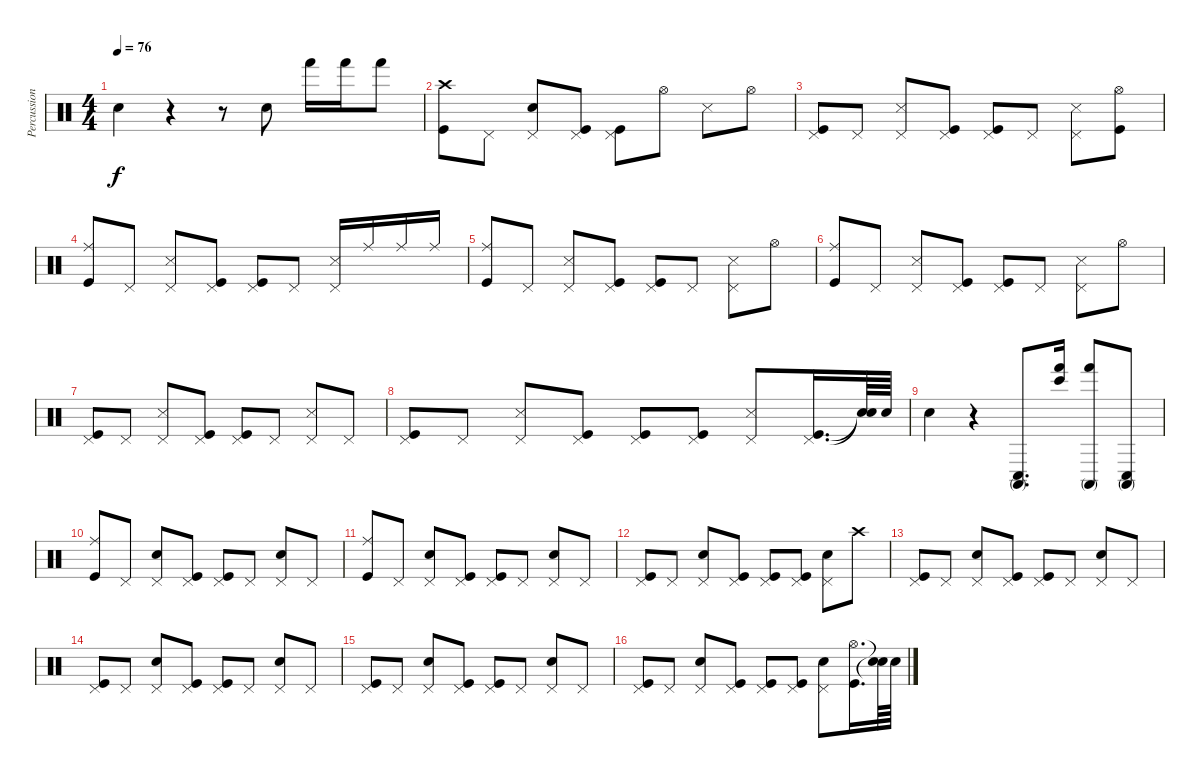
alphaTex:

\track ("Percussions" "Percussion") {instrument percussion}
\staff {score}
\articulation defaults
\ts (4 4)
\tempo 76
\clef neutral
\ks c "Electric Snare (hit)".4{dy f}
r.4 r.8 "Electric Snare (hit)".8 "Hand (hit)".16 "Hand (hit)".16 "Hand (hit)".8 |
("Kick (hit)" "Crash high (hit)").8 "Pedal Hi-Hat (hit)".8 ("Electric Snare (hit)" "Pedal Hi-Hat (hit)").8 ("Kick (hit)" "Pedal Hi-Hat (hit)").8 ("Kick (hit)" "Pedal Hi-Hat (hit)").8 "Hi-Hat (open)".8 "Snare (side stick) 3".8 "Hi-Hat (open)".8 |
("Kick (hit)" "Pedal Hi-Hat (hit)").8 "Pedal Hi-Hat (hit)".8 ("Pedal Hi-Hat (hit)" "Snare (side stick) 3").8 ("Kick (hit)" "Pedal Hi-Hat (hit)").8 ("Kick (hit)" "Pedal Hi-Hat (hit)").8 "Pedal Hi-Hat (hit)".8 ("Pedal Hi-Hat (hit)" "Snare (side stick) 3").8 ("Kick (hit)" "Hi-Hat (open)").8 |
("Kick (hit)" "Ride (middle)").8 "Pedal Hi-Hat (hit)".8 ("Snare (side stick) 3" "Pedal Hi-Hat (hit)").8 ("Kick (hit)" "Pedal Hi-Hat (hit)").8 ("Kick (hit)" "Pedal Hi-Hat (hit)").8 "Pedal Hi-Hat (hit)".8 ("Snare (side stick) 3" "Pedal Hi-Hat (hit)").16 "Ride (middle)".16 "Ride (middle)".16 "Ride (middle)".16 |
("Kick (hit)" "Ride (middle)").8 "Pedal Hi-Hat (hit)".8 ("Pedal Hi-Hat (hit)" "Snare (side stick) 3").8 ("Pedal Hi-Hat (hit)" "Kick (hit)").8 ("Pedal Hi-Hat (hit)" "Kick (hit)").8 "Pedal Hi-Hat (hit)".8 ("Pedal Hi-Hat (hit)" "Snare (side stick) 3").8 "Hi-Hat (open)".8 |
("Ride (middle)" "Kick (hit)").8 "Pedal Hi-Hat (hit)".8 ("Pedal Hi-Hat (hit)" "Snare (side stick) 3").8 ("Pedal Hi-Hat (hit)" "Kick (hit)").8 ("Pedal Hi-Hat (hit)" "Kick (hit)").8 "Pedal Hi-Hat (hit)".8 ("Pedal Hi-Hat (hit)" "Snare (side stick) 3").8 "Hi-Hat (open)".8 |
("Kick (hit)" "Pedal Hi-Hat (hit)").8 "Pedal Hi-Hat (hit)".8 ("Pedal Hi-Hat (hit)" "Snare (side stick) 3").8 ("Pedal Hi-Hat (hit)" "Kick (hit)").8 ("Pedal Hi-Hat (hit)" "Kick (hit)").8 "Pedal Hi-Hat (hit)".8 ("Pedal Hi-Hat (hit)" "Snare (side stick) 3").8 "Pedal Hi-Hat (hit)".8 |
("Pedal Hi-Hat (hit)" "Kick (hit)").8 "Pedal Hi-Hat (hit)".8 ("Pedal Hi-Hat (hit)" "Snare (side stick) 3").8 ("Pedal Hi-Hat (hit)" "Kick (hit)").8 ("Pedal Hi-Hat (hit)" "Kick (hit)").8 ("Pedal Hi-Hat (hit)" "Kick (hit)").8 ("Pedal Hi-Hat (hit)" "Snare (side stick) 3").8 ("Pedal Hi-Hat (hit)" "Kick (hit)").16{d} ("Snare (hit)"{t} "Snare (hit)"{t}).64 "Electric Snare (hit)".64 |
"Electric Snare (hit)".4 r.4 ("Conga high (mute)" "Conga low (hit)").8{d} ("Hand (hit)" "Bongo High (hit)").16 ("Conga high (mute)" "Hand (hit)").8 ("Conga high (mute)" "Conga low (hit)").8 |
("Ride (middle)" "Kick (hit)").8 "Pedal Hi-Hat (hit)".8 ("Pedal Hi-Hat (hit)" "Electric Snare (hit)").8 ("Pedal Hi-Hat (hit)" "Kick (hit)").8 ("Pedal Hi-Hat (hit)" "Kick (hit)").8 "Pedal Hi-Hat (hit)".8 ("Pedal Hi-Hat (hit)" "Electric Snare (hit)").8 "Pedal Hi-Hat (hit)".8 |
("Kick (hit)" "Ride (middle)").8 "Pedal Hi-Hat (hit)".8 ("Pedal Hi-Hat (hit)" "Electric Snare (hit)").8 ("Pedal Hi-Hat (hit)" "Kick (hit)").8 ("Pedal Hi-Hat (hit)" "Kick (hit)").8 "Pedal Hi-Hat (hit)".8 ("Pedal Hi-Hat (hit)" "Electric Snare (hit)").8 "Pedal Hi-Hat (hit)".8 |
("Kick (hit)" "Pedal Hi-Hat (hit)").8 "Pedal Hi-Hat (hit)".8 ("Pedal Hi-Hat (hit)" "Electric Snare (hit)").8 ("Pedal Hi-Hat (hit)" "Kick (hit)").8 ("Pedal Hi-Hat (hit)" "Kick (hit)").8 ("Pedal Hi-Hat (hit)" "Kick (hit)").8 ("Pedal Hi-Hat (hit)" "Electric Snare (hit)").8 "Crash high (hit)".8 |
("Kick (hit)" "Pedal Hi-Hat (hit)").8 "Pedal Hi-Hat (hit)".8 ("Pedal Hi-Hat (hit)" "Electric Snare (hit)").8 ("Pedal Hi-Hat (hit)" "Kick (hit)").8 ("Pedal Hi-Hat (hit)" "Kick (hit)").8 "Pedal Hi-Hat (hit)".8 ("Pedal Hi-Hat (hit)" "Electric Snare (hit)").8 "Pedal Hi-Hat (hit)".8 |
("Pedal Hi-Hat (hit)" "Kick (hit)").8 "Pedal Hi-Hat (hit)".8 ("Pedal Hi-Hat (hit)" "Electric Snare (hit)").8 ("Pedal Hi-Hat (hit)" "Kick (hit)").8 ("Pedal Hi-Hat (hit)" "Kick (hit)").8 "Pedal Hi-Hat (hit)".8 ("Pedal Hi-Hat (hit)" "Electric Snare (hit)").8 "Pedal Hi-Hat (hit)".8 |
("Pedal Hi-Hat (hit)" "Kick (hit)").8 "Pedal Hi-Hat (hit)".8 ("Pedal Hi-Hat (hit)" "Electric Snare (hit)").8 ("Pedal Hi-Hat (hit)" "Kick (hit)").8 ("Pedal Hi-Hat (hit)" "Kick (hit)").8 "Pedal Hi-Hat (hit)".8 ("Pedal Hi-Hat (hit)" "Electric Snare (hit)").8 "Pedal Hi-Hat (hit)".8 |
("Pedal Hi-Hat (hit)" "Kick (hit)").8 "Pedal Hi-Hat (hit)".8 ("Pedal Hi-Hat (hit)" "Electric Snare (hit)").8 ("Pedal Hi-Hat (hit)" "Kick (hit)").8 ("Pedal Hi-Hat (hit)" "Kick (hit)").8 ("Pedal Hi-Hat (hit)" "Kick (hit)").8 ("Pedal Hi-Hat (hit)" "Electric Snare (hit)").8 ("Kick (hit)" "Hi-Hat (open)").16{d} ("Snare (hit)"{t} "Snare (hit)"{t}).64 "Electric Snare (hit)".64
